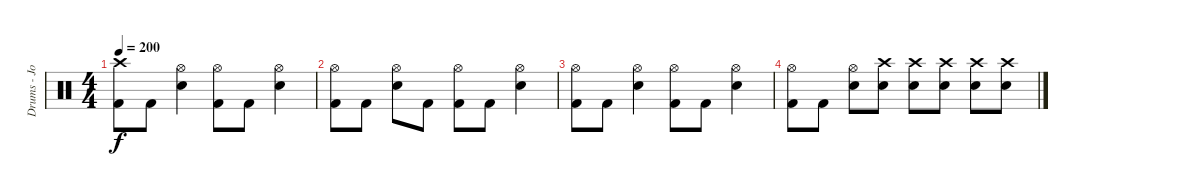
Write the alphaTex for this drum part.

\track ("Drums - John" "Drums - Jo") {instrument percussion}
\staff {score}
\articulation defaults
\ts (4 4)
\tempo 200
\clef neutral
\ks c
("Crash high (hit)" "Kick (hit) 2").8{dy f} "Kick (hit) 2".8 ("Electric Snare (hit)" "Hi-Hat (open)").4 ("Kick (hit) 2" "Hi-Hat (open)").8 "Kick (hit) 2".8 ("Electric Snare (hit)" "Hi-Hat (open)").4 |
("Kick (hit) 2" "Hi-Hat (open)").8 "Kick (hit) 2".8 ("Electric Snare (hit)" "Hi-Hat (open)").8 "Kick (hit) 2".8 ("Kick (hit) 2" "Hi-Hat (open)").8 "Kick (hit) 2".8 ("Electric Snare (hit)" "Hi-Hat (open)").4 |
("Kick (hit) 2" "Hi-Hat (open)").8 "Kick (hit) 2".8 ("Electric Snare (hit)" "Hi-Hat (open)").4 ("Kick (hit) 2" "Hi-Hat (open)").8 "Kick (hit) 2".8 ("Electric Snare (hit)" "Hi-Hat (open)").4 |
("Kick (hit) 2" "Hi-Hat (open)").8 "Kick (hit) 2".8 ("Electric Snare (hit)" "Hi-Hat (open)").8 ("Crash high (hit)" "Electric Snare (hit)").8 ("Crash high (hit)" "Electric Snare (hit)").8 ("Crash high (hit)" "Electric Snare (hit)").8 ("Crash high (hit)" "Electric Snare (hit)").8 ("Crash high (hit)" "Electric Snare (hit)").8
